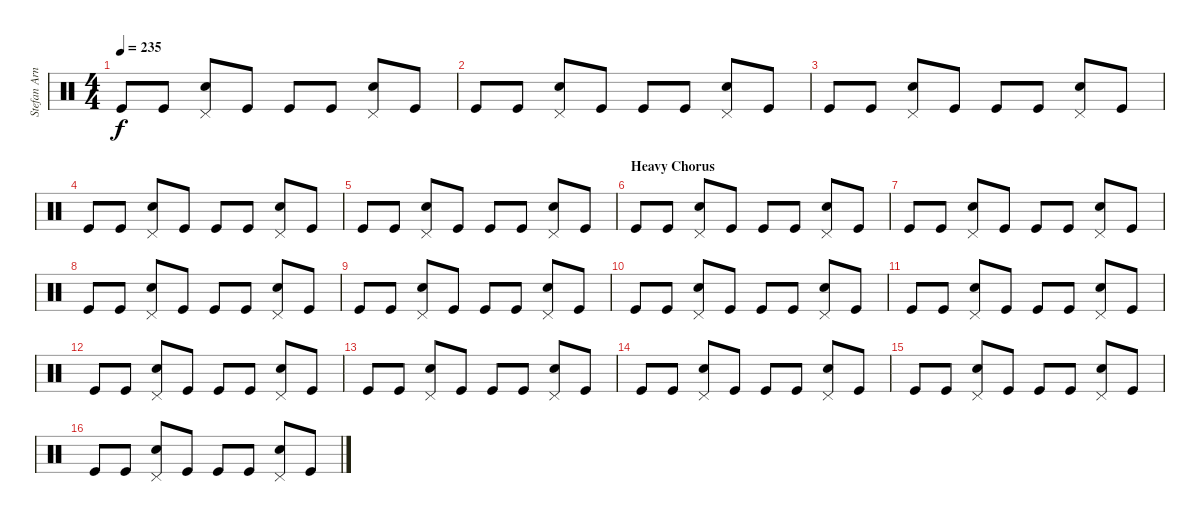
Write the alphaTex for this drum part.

\track ("Stefan Arnold" "Stefan Arn") {instrument percussion}
\staff {score}
\articulation defaults
\ts (4 4)
\tempo 235
\clef neutral
\ks c "Kick (hit)".8{dy f} "Kick (hit)".8
("Electric Snare (hit)" "Pedal Hi-Hat (hit)").8 "Kick (hit)".8 "Kick (hit)".8 "Kick (hit)".8 ("Electric Snare (hit)" "Pedal Hi-Hat (hit)").8 "Kick (hit)".8 |
"Kick (hit)".8 "Kick (hit)".8 ("Electric Snare (hit)" "Pedal Hi-Hat (hit)").8 "Kick (hit)".8 "Kick (hit)".8 "Kick (hit)".8 ("Electric Snare (hit)" "Pedal Hi-Hat (hit)").8 "Kick (hit)".8 |
"Kick (hit)".8 "Kick (hit)".8 ("Electric Snare (hit)" "Pedal Hi-Hat (hit)").8 "Kick (hit)".8 "Kick (hit)".8 "Kick (hit)".8 ("Electric Snare (hit)" "Pedal Hi-Hat (hit)").8 "Kick (hit)".8 |
"Kick (hit)".8 "Kick (hit)".8 ("Electric Snare (hit)" "Pedal Hi-Hat (hit)").8 "Kick (hit)".8 "Kick (hit)".8 "Kick (hit)".8 ("Electric Snare (hit)" "Pedal Hi-Hat (hit)").8 "Kick (hit)".8 |
"Kick (hit)".8 "Kick (hit)".8 ("Electric Snare (hit)" "Pedal Hi-Hat (hit)").8 "Kick (hit)".8 "Kick (hit)".8 "Kick (hit)".8 ("Electric Snare (hit)" "Pedal Hi-Hat (hit)").8 "Kick (hit)".8 |
\section ("" "Heavy Chorus")
"Kick (hit)".8 "Kick (hit)".8 ("Electric Snare (hit)" "Pedal Hi-Hat (hit)").8 "Kick (hit)".8 "Kick (hit)".8 "Kick (hit)".8 ("Electric Snare (hit)" "Pedal Hi-Hat (hit)").8 "Kick (hit)".8 |
"Kick (hit)".8 "Kick (hit)".8 ("Electric Snare (hit)" "Pedal Hi-Hat (hit)").8 "Kick (hit)".8 "Kick (hit)".8 "Kick (hit)".8 ("Electric Snare (hit)" "Pedal Hi-Hat (hit)").8 "Kick (hit)".8 |
"Kick (hit)".8 "Kick (hit)".8 ("Electric Snare (hit)" "Pedal Hi-Hat (hit)").8 "Kick (hit)".8 "Kick (hit)".8 "Kick (hit)".8 ("Electric Snare (hit)" "Pedal Hi-Hat (hit)").8 "Kick (hit)".8 |
"Kick (hit)".8 "Kick (hit)".8 ("Electric Snare (hit)" "Pedal Hi-Hat (hit)").8 "Kick (hit)".8 "Kick (hit)".8 "Kick (hit)".8 ("Electric Snare (hit)" "Pedal Hi-Hat (hit)").8 "Kick (hit)".8 |
"Kick (hit)".8 "Kick (hit)".8 ("Electric Snare (hit)" "Pedal Hi-Hat (hit)").8 "Kick (hit)".8 "Kick (hit)".8 "Kick (hit)".8 ("Electric Snare (hit)" "Pedal Hi-Hat (hit)").8 "Kick (hit)".8 |
"Kick (hit)".8 "Kick (hit)".8 ("Electric Snare (hit)" "Pedal Hi-Hat (hit)").8 "Kick (hit)".8 "Kick (hit)".8 "Kick (hit)".8 ("Electric Snare (hit)" "Pedal Hi-Hat (hit)").8 "Kick (hit)".8 |
"Kick (hit)".8 "Kick (hit)".8 ("Electric Snare (hit)" "Pedal Hi-Hat (hit)").8 "Kick (hit)".8 "Kick (hit)".8 "Kick (hit)".8 ("Electric Snare (hit)" "Pedal Hi-Hat (hit)").8 "Kick (hit)".8 |
"Kick (hit)".8 "Kick (hit)".8 ("Electric Snare (hit)" "Pedal Hi-Hat (hit)").8 "Kick (hit)".8 "Kick (hit)".8 "Kick (hit)".8 ("Electric Snare (hit)" "Pedal Hi-Hat (hit)").8 "Kick (hit)".8 |
"Kick (hit)".8 "Kick (hit)".8 ("Electric Snare (hit)" "Pedal Hi-Hat (hit)").8 "Kick (hit)".8 "Kick (hit)".8 "Kick (hit)".8 ("Electric Snare (hit)" "Pedal Hi-Hat (hit)").8 "Kick (hit)".8 |
"Kick (hit)".8 "Kick (hit)".8 ("Electric Snare (hit)" "Pedal Hi-Hat (hit)").8 "Kick (hit)".8 "Kick (hit)".8 "Kick (hit)".8 ("Electric Snare (hit)" "Pedal Hi-Hat (hit)").8 "Kick (hit)".8 |
"Kick (hit)".8 "Kick (hit)".8 ("Electric Snare (hit)" "Pedal Hi-Hat (hit)").8 "Kick (hit)".8 "Kick (hit)".8 "Kick (hit)".8 ("Electric Snare (hit)" "Pedal Hi-Hat (hit)").8 "Kick (hit)".8
